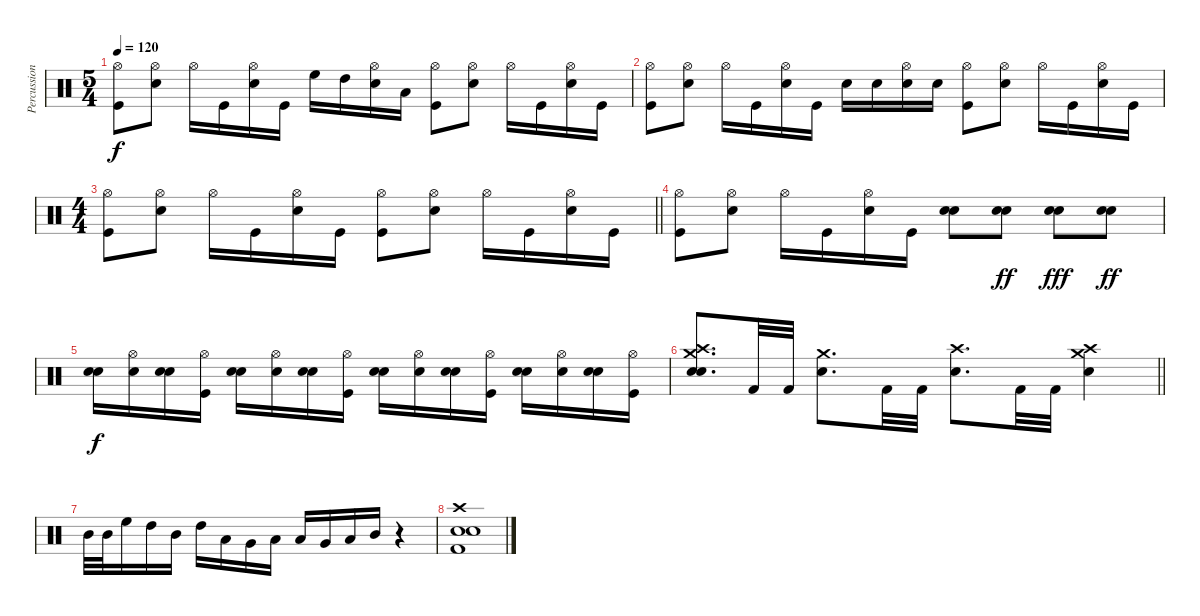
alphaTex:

\track ("Percussion" "Percussion") {instrument percussion}
\staff {score}
\articulation defaults
\ts (5 4)
\tempo 120
\clef neutral
\ks c
("Hi-Hat (open)" "Kick (hit)").8{dy f} ("Hi-Hat (open)" "Electric Snare (hit)").8 "Hi-Hat (open)".16 "Kick (hit)".16 ("Hi-Hat (open)" "Electric Snare (hit)").16 "Kick (hit)".16 "High Floor Tom (hit)".16 "High Tom (hit)".16 ("Electric Snare (hit)" "Hi-Hat (open)").16 "Low Tom (hit)".16 ("Hi-Hat (open)" "Kick (hit)").8 ("Hi-Hat (open)" "Electric Snare (hit)").8 "Hi-Hat (open)".16 "Kick (hit)".16 ("Hi-Hat (open)" "Electric Snare (hit)").16 "Kick (hit)".16 |
("Hi-Hat (open)" "Kick (hit)").8 ("Hi-Hat (open)" "Electric Snare (hit)").8 "Hi-Hat (open)".16 "Kick (hit)".16 ("Hi-Hat (open)" "Electric Snare (hit)").16 "Kick (hit)".16 "Electric Snare (hit)".16 "Electric Snare (hit)".16 ("Electric Snare (hit)" "Hi-Hat (open)").16 "Electric Snare (hit)".16 ("Hi-Hat (open)" "Kick (hit)").8 ("Hi-Hat (open)" "Electric Snare (hit)").8 "Hi-Hat (open)".16 "Kick (hit)".16 ("Hi-Hat (open)" "Electric Snare (hit)").16 "Kick (hit)".16 |
\ts (4 4)
\barLineRight lightlight
("Hi-Hat (open)" "Kick (hit)").8 ("Hi-Hat (open)" "Electric Snare (hit)").8 "Hi-Hat (open)".16 "Kick (hit)".16 ("Hi-Hat (open)" "Electric Snare (hit)").16 "Kick (hit)".16 ("Hi-Hat (open)" "Kick (hit)").8 ("Hi-Hat (open)" "Electric Snare (hit)").8 "Hi-Hat (open)".16 "Kick (hit)".16 ("Hi-Hat (open)" "Electric Snare (hit)").16 "Kick (hit)".16 |
("Hi-Hat (open)" "Kick (hit)").8 ("Hi-Hat (open)" "Electric Snare (hit)").8 "Hi-Hat (open)".16 "Kick (hit)".16 ("Hi-Hat (open)" "Electric Snare (hit)").16 "Kick (hit)".16 ("Electric Snare (hit)" "Electric Snare (hit)").8 ("Electric Snare (hit)" "Electric Snare (hit)").8{dy ff} ("Electric Snare (hit)" "Electric Snare (hit)").8{dy fff} ("Electric Snare (hit)" "Electric Snare (hit)").8{dy ff} |
("Electric Snare (hit)" "Electric Snare (hit)").16{dy f} ("Hi-Hat (open)" "Electric Snare (hit)").16 ("Electric Snare (hit)" "Electric Snare (hit)").16 ("Hi-Hat (open)" "Kick (hit)").16 ("Electric Snare (hit)" "Electric Snare (hit)").16 ("Hi-Hat (open)" "Electric Snare (hit)").16 ("Electric Snare (hit)" "Electric Snare (hit)").16 ("Hi-Hat (open)" "Kick (hit)").16 ("Electric Snare (hit)" "Electric Snare (hit)").16 ("Hi-Hat (open)" "Electric Snare (hit)").16 ("Electric Snare (hit)" "Electric Snare (hit)").16 ("Hi-Hat (open)" "Kick (hit)").16 ("Electric Snare (hit)" "Electric Snare (hit)").16 ("Hi-Hat (open)" "Electric Snare (hit)").16 ("Electric Snare (hit)" "Electric Snare (hit)").16 ("Hi-Hat (open)" "Kick (hit)").16 |
\barLineRight lightlight
("Crash high (hit)" "Crash medium (hit)" "Snare (hit) 2" "Electric Snare (hit)").8{d} "Kick (hit) 2".32 "Kick (hit) 2".32 ("Crash medium (hit)" "Snare (hit) 2").8{d} "Kick (hit) 2".32 "Kick (hit) 2".32 ("Crash high (hit)" "Snare (hit) 2").8{d} "Kick (hit) 2".32 "Kick (hit) 2".32 ("Crash medium (hit)" "Crash high (hit)" "Snare (hit) 2").4 |
"Mid Tom (hit)".32 "Mid Tom (hit)".32 "High Floor Tom (hit)".16 "High Tom (hit)".16 "Mid Tom (hit)".16 "High Tom (hit)".16 "Low Tom (hit)".16 "Very Low Tom (hit)".16 "Low Tom (hit)".16 "Low Floor Tom (hit)".16 "Very Low Tom (hit)".16 "Low Tom (hit)".16 "Mid Tom (hit)".16 r.4 |
("Crash high (hit)" "Electric Snare (hit)" "Snare (hit) 2" "Kick (hit) 2").1
